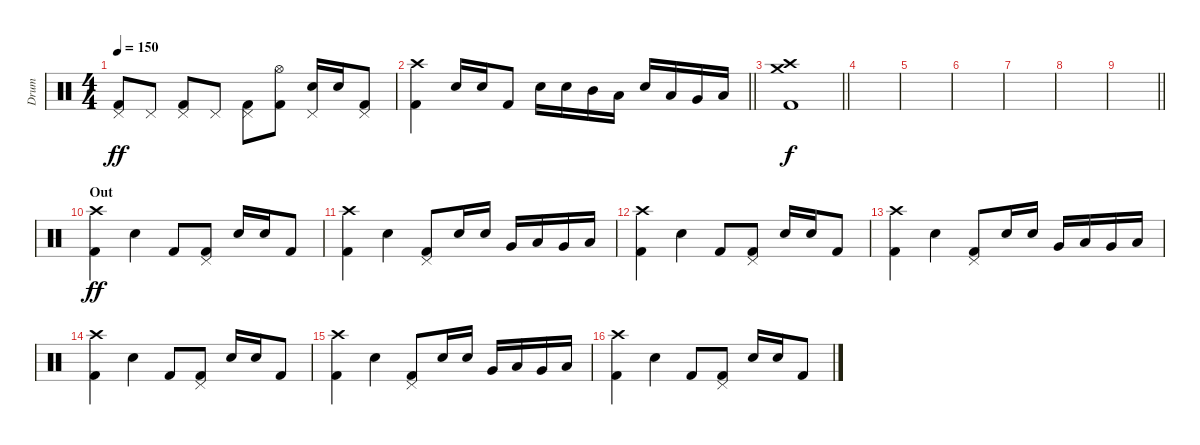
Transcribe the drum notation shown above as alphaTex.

\track ("Drum" "Drum") {instrument percussion}
\staff {score}
\articulation defaults
\ts (4 4)
\tempo 150
\clef neutral
\ks c
("Pedal Hi-Hat (hit)" "Kick (hit) 2").8{dy ff} "Pedal Hi-Hat (hit)".8 ("Pedal Hi-Hat (hit)" "Kick (hit) 2").8 "Pedal Hi-Hat (hit)".8 ("Pedal Hi-Hat (hit)" "Kick (hit) 2").8 ("Kick (hit) 2" "Hi-Hat (open)").8 ("Electric Snare (hit)" "Pedal Hi-Hat (hit)").16 "Electric Snare (hit)".16 ("Kick (hit) 2" "Pedal Hi-Hat (hit)").8 |
\barLineRight lightlight
("Kick (hit) 2" "Crash high (hit)").4 "Electric Snare (hit)".16 "Electric Snare (hit)".16 "Kick (hit) 2".8 "Electric Snare (hit)".16 "Electric Snare (hit)".16 "Mid Tom (hit)".16 "Low Tom (hit)".16 "Electric Snare (hit)".16 "Low Tom (hit)".16 "Very Low Tom (hit)".16 "Low Floor Tom (hit)".16 |
\barLineRight lightlight
("Crash high (hit)" "Crash medium (hit)" "Kick (hit) 2").1{dy f} |
|
|
|
|
|
\barLineRight lightlight
|
\section ("" "Out")
("Kick (hit) 2" "Crash high (hit)").4{dy ff} "Electric Snare (hit)".4 "Kick (hit) 2".8 ("Kick (hit) 2" "Pedal Hi-Hat (hit)").8 "Electric Snare (hit)".16 "Snare (hit) 2".16 "Kick (hit) 2".8 |
("Kick (hit) 2" "Crash high (hit)").4 "Electric Snare (hit)".4 ("Kick (hit) 2" "Pedal Hi-Hat (hit)").8 "Electric Snare (hit)".16 "Snare (hit) 2".16 "Very Low Tom (hit)".16 "Low Tom (hit)".16 "Very Low Tom (hit)".16 "Low Floor Tom (hit)".16 |
("Kick (hit) 2" "Crash high (hit)").4 "Electric Snare (hit)".4 "Kick (hit) 2".8 ("Kick (hit) 2" "Pedal Hi-Hat (hit)").8 "Electric Snare (hit)".16 "Snare (hit) 2".16 "Kick (hit) 2".8 |
("Kick (hit) 2" "Crash high (hit)").4 "Electric Snare (hit)".4 ("Kick (hit) 2" "Pedal Hi-Hat (hit)").8 "Electric Snare (hit)".16 "Snare (hit) 2".16 "Very Low Tom (hit)".16 "Low Tom (hit)".16 "Very Low Tom (hit)".16 "Low Floor Tom (hit)".16 |
("Kick (hit) 2" "Crash high (hit)").4 "Electric Snare (hit)".4 "Kick (hit) 2".8 ("Kick (hit) 2" "Pedal Hi-Hat (hit)").8 "Electric Snare (hit)".16 "Snare (hit) 2".16 "Kick (hit) 2".8 |
("Kick (hit) 2" "Crash high (hit)").4 "Electric Snare (hit)".4 ("Kick (hit) 2" "Pedal Hi-Hat (hit)").8 "Electric Snare (hit)".16 "Snare (hit) 2".16 "Very Low Tom (hit)".16 "Low Tom (hit)".16 "Very Low Tom (hit)".16 "Low Floor Tom (hit)".16 |
("Kick (hit) 2" "Crash high (hit)").4 "Electric Snare (hit)".4 "Kick (hit) 2".8 ("Kick (hit) 2" "Pedal Hi-Hat (hit)").8 "Electric Snare (hit)".16 "Snare (hit) 2".16 "Kick (hit) 2".8
